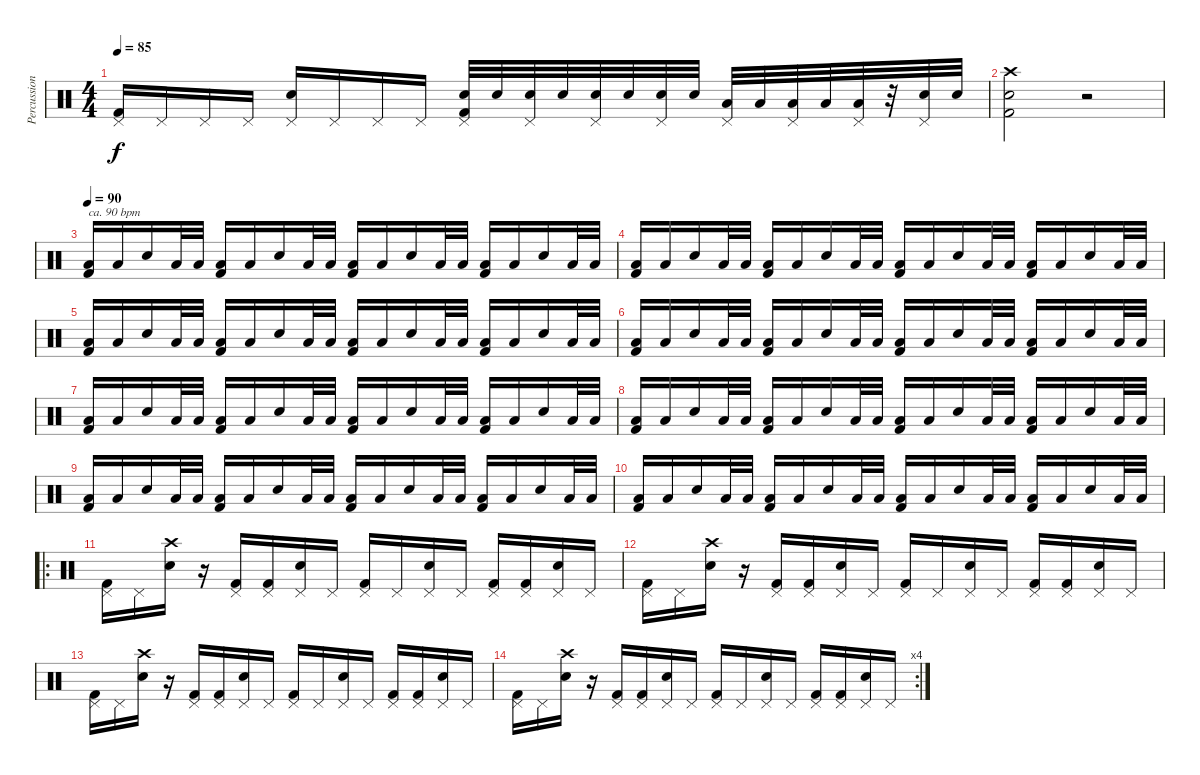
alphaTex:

\track ("Percussions" "Percussion") {instrument percussion}
\staff {score}
\articulation defaults
\ts (4 4)
\tempo 85
\clef neutral
\ks c
("Pedal Hi-Hat (hit)" "Kick (hit) 2").16{dy f} "Pedal Hi-Hat (hit)".16 "Pedal Hi-Hat (hit)".16 "Pedal Hi-Hat (hit)".16 ("Pedal Hi-Hat (hit)" "Snare (hit) 2").16 "Pedal Hi-Hat (hit)".16 "Pedal Hi-Hat (hit)".16 "Pedal Hi-Hat (hit)".16 ("Pedal Hi-Hat (hit)" "Snare (hit) 2" "Kick (hit) 2").32 "Snare (hit) 2".32 ("Pedal Hi-Hat (hit)" "Snare (hit) 2").32 "Snare (hit) 2".32 ("Pedal Hi-Hat (hit)" "Snare (hit) 2").32 "Snare (hit) 2".32 ("Pedal Hi-Hat (hit)" "Snare (hit) 2").32 "Snare (hit) 2".32 ("Pedal Hi-Hat (hit)" "Low Tom (hit)").32 "Low Tom (hit)".32 ("Pedal Hi-Hat (hit)" "Low Tom (hit)").32 "Low Tom (hit)".32 ("Pedal Hi-Hat (hit)" "Low Tom (hit)").32 r.32 ("Pedal Hi-Hat (hit)" "Snare (hit) 2").32 "Snare (hit) 2".32 |
("Crash high (hit)" "Snare (hit) 2" "Kick (hit) 2").2 r.2 |
\tempo 90
("Low Floor Tom (hit)" "Kick (hit) 2").16{txt "ca. 90 bpm"} "Low Floor Tom (hit)".16 "Snare (hit) 2".16 "Low Floor Tom (hit)".32 "Low Floor Tom (hit)".32 ("Low Floor Tom (hit)" "Kick (hit) 2").16 "Low Floor Tom (hit)".16 "Snare (hit) 2".16 "Low Floor Tom (hit)".32 "Low Floor Tom (hit)".32 ("Low Floor Tom (hit)" "Kick (hit) 2").16 "Low Floor Tom (hit)".16 "Snare (hit) 2".16 "Low Floor Tom (hit)".32 "Low Floor Tom (hit)".32 ("Low Floor Tom (hit)" "Kick (hit) 2").16 "Low Floor Tom (hit)".16 "Snare (hit) 2".16 "Low Floor Tom (hit)".32 "Low Floor Tom (hit)".32 |
("Low Floor Tom (hit)" "Kick (hit) 2").16 "Low Floor Tom (hit)".16 "Snare (hit) 2".16 "Low Floor Tom (hit)".32 "Low Floor Tom (hit)".32 ("Low Floor Tom (hit)" "Kick (hit) 2").16 "Low Floor Tom (hit)".16 "Snare (hit) 2".16 "Low Floor Tom (hit)".32 "Low Floor Tom (hit)".32 ("Low Floor Tom (hit)" "Kick (hit) 2").16 "Low Floor Tom (hit)".16 "Snare (hit) 2".16 "Low Floor Tom (hit)".32 "Low Floor Tom (hit)".32 ("Low Floor Tom (hit)" "Kick (hit) 2").16 "Low Floor Tom (hit)".16 "Snare (hit) 2".16 "Low Floor Tom (hit)".32 "Low Floor Tom (hit)".32 |
("Low Floor Tom (hit)" "Kick (hit) 2").16 "Low Floor Tom (hit)".16 "Snare (hit) 2".16 "Low Floor Tom (hit)".32 "Low Floor Tom (hit)".32 ("Low Floor Tom (hit)" "Kick (hit) 2").16 "Low Floor Tom (hit)".16 "Snare (hit) 2".16 "Low Floor Tom (hit)".32 "Low Floor Tom (hit)".32 ("Low Floor Tom (hit)" "Kick (hit) 2").16 "Low Floor Tom (hit)".16 "Snare (hit) 2".16 "Low Floor Tom (hit)".32 "Low Floor Tom (hit)".32 ("Low Floor Tom (hit)" "Kick (hit) 2").16 "Low Floor Tom (hit)".16 "Snare (hit) 2".16 "Low Floor Tom (hit)".32 "Low Floor Tom (hit)".32 |
("Low Floor Tom (hit)" "Kick (hit) 2").16 "Low Floor Tom (hit)".16 "Snare (hit) 2".16 "Low Floor Tom (hit)".32 "Low Floor Tom (hit)".32 ("Low Floor Tom (hit)" "Kick (hit) 2").16 "Low Floor Tom (hit)".16 "Snare (hit) 2".16 "Low Floor Tom (hit)".32 "Low Floor Tom (hit)".32 ("Low Floor Tom (hit)" "Kick (hit) 2").16 "Low Floor Tom (hit)".16 "Snare (hit) 2".16 "Low Floor Tom (hit)".32 "Low Floor Tom (hit)".32 ("Low Floor Tom (hit)" "Kick (hit) 2").16 "Low Floor Tom (hit)".16 "Snare (hit) 2".16 "Low Floor Tom (hit)".32 "Low Floor Tom (hit)".32 |
("Low Floor Tom (hit)" "Kick (hit) 2").16 "Low Floor Tom (hit)".16 "Snare (hit) 2".16 "Low Floor Tom (hit)".32 "Low Floor Tom (hit)".32 ("Low Floor Tom (hit)" "Kick (hit) 2").16 "Low Floor Tom (hit)".16 "Snare (hit) 2".16 "Low Floor Tom (hit)".32 "Low Floor Tom (hit)".32 ("Low Floor Tom (hit)" "Kick (hit) 2").16 "Low Floor Tom (hit)".16 "Snare (hit) 2".16 "Low Floor Tom (hit)".32 "Low Floor Tom (hit)".32 ("Low Floor Tom (hit)" "Kick (hit) 2").16 "Low Floor Tom (hit)".16 "Snare (hit) 2".16 "Low Floor Tom (hit)".32 "Low Floor Tom (hit)".32 |
("Low Floor Tom (hit)" "Kick (hit) 2").16 "Low Floor Tom (hit)".16 "Snare (hit) 2".16 "Low Floor Tom (hit)".32 "Low Floor Tom (hit)".32 ("Low Floor Tom (hit)" "Kick (hit) 2").16 "Low Floor Tom (hit)".16 "Snare (hit) 2".16 "Low Floor Tom (hit)".32 "Low Floor Tom (hit)".32 ("Low Floor Tom (hit)" "Kick (hit) 2").16 "Low Floor Tom (hit)".16 "Snare (hit) 2".16 "Low Floor Tom (hit)".32 "Low Floor Tom (hit)".32 ("Low Floor Tom (hit)" "Kick (hit) 2").16 "Low Floor Tom (hit)".16 "Snare (hit) 2".16 "Low Floor Tom (hit)".32 "Low Floor Tom (hit)".32 |
("Low Floor Tom (hit)" "Kick (hit) 2").16 "Low Floor Tom (hit)".16 "Snare (hit) 2".16 "Low Floor Tom (hit)".32 "Low Floor Tom (hit)".32 ("Low Floor Tom (hit)" "Kick (hit) 2").16 "Low Floor Tom (hit)".16 "Snare (hit) 2".16 "Low Floor Tom (hit)".32 "Low Floor Tom (hit)".32 ("Low Floor Tom (hit)" "Kick (hit) 2").16 "Low Floor Tom (hit)".16 "Snare (hit) 2".16 "Low Floor Tom (hit)".32 "Low Floor Tom (hit)".32 ("Low Floor Tom (hit)" "Kick (hit) 2").16 "Low Floor Tom (hit)".16 "Snare (hit) 2".16 "Low Floor Tom (hit)".32 "Low Floor Tom (hit)".32 |
("Low Floor Tom (hit)" "Kick (hit) 2").16 "Low Floor Tom (hit)".16 "Snare (hit) 2".16 "Low Floor Tom (hit)".32 "Low Floor Tom (hit)".32 ("Low Floor Tom (hit)" "Kick (hit) 2").16 "Low Floor Tom (hit)".16 "Snare (hit) 2".16 "Low Floor Tom (hit)".32 "Low Floor Tom (hit)".32 ("Low Floor Tom (hit)" "Kick (hit) 2").16 "Low Floor Tom (hit)".16 "Snare (hit) 2".16 "Low Floor Tom (hit)".32 "Low Floor Tom (hit)".32 ("Low Floor Tom (hit)" "Kick (hit) 2").16 "Low Floor Tom (hit)".16 "Snare (hit) 2".16 "Low Floor Tom (hit)".32 "Low Floor Tom (hit)".32 |
\ro
("Pedal Hi-Hat (hit)" "Kick (hit) 2").16 "Pedal Hi-Hat (hit)".16 ("Crash high (hit)" "Snare (hit) 2").16 r.16 ("Pedal Hi-Hat (hit)" "Kick (hit) 2").16 ("Pedal Hi-Hat (hit)" "Kick (hit) 2").16 ("Pedal Hi-Hat (hit)" "Snare (hit) 2").16 "Pedal Hi-Hat (hit)".16 ("Pedal Hi-Hat (hit)" "Kick (hit) 2").16 "Pedal Hi-Hat (hit)".16 ("Pedal Hi-Hat (hit)" "Snare (hit) 2").16 "Pedal Hi-Hat (hit)".16 ("Pedal Hi-Hat (hit)" "Kick (hit) 2").16 ("Pedal Hi-Hat (hit)" "Kick (hit) 2").16 ("Pedal Hi-Hat (hit)" "Snare (hit) 2").16 "Pedal Hi-Hat (hit)".16 |
("Pedal Hi-Hat (hit)" "Kick (hit) 2").16 "Pedal Hi-Hat (hit)".16 ("Crash high (hit)" "Snare (hit) 2").16 r.16 ("Pedal Hi-Hat (hit)" "Kick (hit) 2").16 ("Pedal Hi-Hat (hit)" "Kick (hit) 2").16 ("Pedal Hi-Hat (hit)" "Snare (hit) 2").16 "Pedal Hi-Hat (hit)".16 ("Pedal Hi-Hat (hit)" "Kick (hit) 2").16 "Pedal Hi-Hat (hit)".16 ("Pedal Hi-Hat (hit)" "Snare (hit) 2").16 "Pedal Hi-Hat (hit)".16 ("Pedal Hi-Hat (hit)" "Kick (hit) 2").16 ("Pedal Hi-Hat (hit)" "Kick (hit) 2").16 ("Pedal Hi-Hat (hit)" "Snare (hit) 2").16 "Pedal Hi-Hat (hit)".16 |
("Pedal Hi-Hat (hit)" "Kick (hit) 2").16 "Pedal Hi-Hat (hit)".16 ("Crash high (hit)" "Snare (hit) 2").16 r.16 ("Pedal Hi-Hat (hit)" "Kick (hit) 2").16 ("Pedal Hi-Hat (hit)" "Kick (hit) 2").16 ("Pedal Hi-Hat (hit)" "Snare (hit) 2").16 "Pedal Hi-Hat (hit)".16 ("Pedal Hi-Hat (hit)" "Kick (hit) 2").16 "Pedal Hi-Hat (hit)".16 ("Pedal Hi-Hat (hit)" "Snare (hit) 2").16 "Pedal Hi-Hat (hit)".16 ("Pedal Hi-Hat (hit)" "Kick (hit) 2").16 ("Pedal Hi-Hat (hit)" "Kick (hit) 2").16 ("Pedal Hi-Hat (hit)" "Snare (hit) 2").16 "Pedal Hi-Hat (hit)".16 |
\rc 4
("Pedal Hi-Hat (hit)" "Kick (hit) 2").16 "Pedal Hi-Hat (hit)".16 ("Crash high (hit)" "Snare (hit) 2").16 r.16 ("Pedal Hi-Hat (hit)" "Kick (hit) 2").16 ("Pedal Hi-Hat (hit)" "Kick (hit) 2").16 ("Pedal Hi-Hat (hit)" "Snare (hit) 2").16 "Pedal Hi-Hat (hit)".16 ("Pedal Hi-Hat (hit)" "Kick (hit) 2").16 "Pedal Hi-Hat (hit)".16 ("Pedal Hi-Hat (hit)" "Snare (hit) 2").16 "Pedal Hi-Hat (hit)".16 ("Pedal Hi-Hat (hit)" "Kick (hit) 2").16 ("Pedal Hi-Hat (hit)" "Kick (hit) 2").16 ("Pedal Hi-Hat (hit)" "Snare (hit) 2").16 "Pedal Hi-Hat (hit)".16
